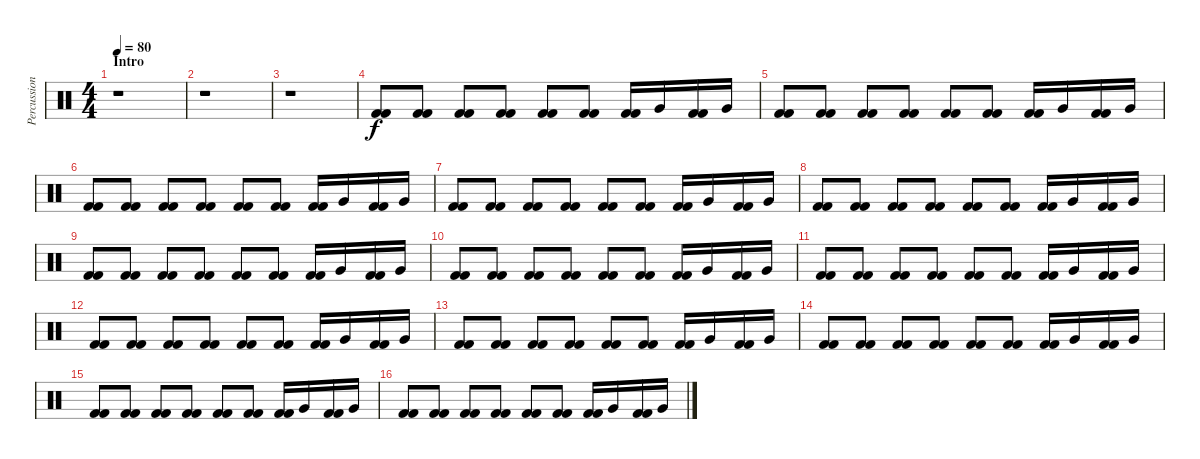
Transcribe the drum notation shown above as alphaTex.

\track ("Percussions" "Percussion") {instrument percussion}
\staff {score}
\articulation defaults
\ts (4 4)
\section ("" "Intro")
\tempo 80
\clef neutral
\ks c
r.1{dy f} |
r.1 |
r.1 |
("Kick (hit) 2" "Kick (hit) 2").8 ("Kick (hit) 2" "Kick (hit) 2").8 ("Kick (hit) 2" "Kick (hit) 2").8 ("Kick (hit) 2" "Kick (hit) 2").8 ("Kick (hit) 2" "Kick (hit) 2").8 ("Kick (hit) 2" "Kick (hit) 2").8 ("Kick (hit) 2" "Kick (hit) 2").16 "Very Low Tom (hit)".16 ("Kick (hit) 2" "Kick (hit) 2").16 "Very Low Tom (hit)".16 |
("Kick (hit) 2" "Kick (hit) 2").8 ("Kick (hit) 2" "Kick (hit) 2").8 ("Kick (hit) 2" "Kick (hit) 2").8 ("Kick (hit) 2" "Kick (hit) 2").8 ("Kick (hit) 2" "Kick (hit) 2").8 ("Kick (hit) 2" "Kick (hit) 2").8 ("Kick (hit) 2" "Kick (hit) 2").16 "Very Low Tom (hit)".16 ("Kick (hit) 2" "Kick (hit) 2").16 "Very Low Tom (hit)".16 |
("Kick (hit) 2" "Kick (hit) 2").8 ("Kick (hit) 2" "Kick (hit) 2").8 ("Kick (hit) 2" "Kick (hit) 2").8 ("Kick (hit) 2" "Kick (hit) 2").8 ("Kick (hit) 2" "Kick (hit) 2").8 ("Kick (hit) 2" "Kick (hit) 2").8 ("Kick (hit) 2" "Kick (hit) 2").16 "Very Low Tom (hit)".16 ("Kick (hit) 2" "Kick (hit) 2").16 "Very Low Tom (hit)".16 |
("Kick (hit) 2" "Kick (hit) 2").8 ("Kick (hit) 2" "Kick (hit) 2").8 ("Kick (hit) 2" "Kick (hit) 2").8 ("Kick (hit) 2" "Kick (hit) 2").8 ("Kick (hit) 2" "Kick (hit) 2").8 ("Kick (hit) 2" "Kick (hit) 2").8 ("Kick (hit) 2" "Kick (hit) 2").16 "Very Low Tom (hit)".16 ("Kick (hit) 2" "Kick (hit) 2").16 "Very Low Tom (hit)".16 |
("Kick (hit) 2" "Kick (hit) 2").8 ("Kick (hit) 2" "Kick (hit) 2").8 ("Kick (hit) 2" "Kick (hit) 2").8 ("Kick (hit) 2" "Kick (hit) 2").8 ("Kick (hit) 2" "Kick (hit) 2").8 ("Kick (hit) 2" "Kick (hit) 2").8 ("Kick (hit) 2" "Kick (hit) 2").16 "Very Low Tom (hit)".16 ("Kick (hit) 2" "Kick (hit) 2").16 "Very Low Tom (hit)".16 |
("Kick (hit) 2" "Kick (hit) 2").8 ("Kick (hit) 2" "Kick (hit) 2").8 ("Kick (hit) 2" "Kick (hit) 2").8 ("Kick (hit) 2" "Kick (hit) 2").8 ("Kick (hit) 2" "Kick (hit) 2").8 ("Kick (hit) 2" "Kick (hit) 2").8 ("Kick (hit) 2" "Kick (hit) 2").16 "Very Low Tom (hit)".16 ("Kick (hit) 2" "Kick (hit) 2").16 "Very Low Tom (hit)".16 |
("Kick (hit) 2" "Kick (hit) 2").8 ("Kick (hit) 2" "Kick (hit) 2").8 ("Kick (hit) 2" "Kick (hit) 2").8 ("Kick (hit) 2" "Kick (hit) 2").8 ("Kick (hit) 2" "Kick (hit) 2").8 ("Kick (hit) 2" "Kick (hit) 2").8 ("Kick (hit) 2" "Kick (hit) 2").16 "Very Low Tom (hit)".16 ("Kick (hit) 2" "Kick (hit) 2").16 "Very Low Tom (hit)".16 |
("Kick (hit) 2" "Kick (hit) 2").8 ("Kick (hit) 2" "Kick (hit) 2").8 ("Kick (hit) 2" "Kick (hit) 2").8 ("Kick (hit) 2" "Kick (hit) 2").8 ("Kick (hit) 2" "Kick (hit) 2").8 ("Kick (hit) 2" "Kick (hit) 2").8 ("Kick (hit) 2" "Kick (hit) 2").16 "Very Low Tom (hit)".16 ("Kick (hit) 2" "Kick (hit) 2").16 "Very Low Tom (hit)".16 |
("Kick (hit) 2" "Kick (hit) 2").8 ("Kick (hit) 2" "Kick (hit) 2").8 ("Kick (hit) 2" "Kick (hit) 2").8 ("Kick (hit) 2" "Kick (hit) 2").8 ("Kick (hit) 2" "Kick (hit) 2").8 ("Kick (hit) 2" "Kick (hit) 2").8 ("Kick (hit) 2" "Kick (hit) 2").16 "Very Low Tom (hit)".16 ("Kick (hit) 2" "Kick (hit) 2").16 "Very Low Tom (hit)".16 |
("Kick (hit) 2" "Kick (hit) 2").8 ("Kick (hit) 2" "Kick (hit) 2").8 ("Kick (hit) 2" "Kick (hit) 2").8 ("Kick (hit) 2" "Kick (hit) 2").8 ("Kick (hit) 2" "Kick (hit) 2").8 ("Kick (hit) 2" "Kick (hit) 2").8 ("Kick (hit) 2" "Kick (hit) 2").16 "Very Low Tom (hit)".16 ("Kick (hit) 2" "Kick (hit) 2").16 "Very Low Tom (hit)".16 |
("Kick (hit) 2" "Kick (hit) 2").8 ("Kick (hit) 2" "Kick (hit) 2").8 ("Kick (hit) 2" "Kick (hit) 2").8 ("Kick (hit) 2" "Kick (hit) 2").8 ("Kick (hit) 2" "Kick (hit) 2").8 ("Kick (hit) 2" "Kick (hit) 2").8 ("Kick (hit) 2" "Kick (hit) 2").16 "Very Low Tom (hit)".16 ("Kick (hit) 2" "Kick (hit) 2").16 "Very Low Tom (hit)".16 |
("Kick (hit) 2" "Kick (hit) 2").8 ("Kick (hit) 2" "Kick (hit) 2").8 ("Kick (hit) 2" "Kick (hit) 2").8 ("Kick (hit) 2" "Kick (hit) 2").8 ("Kick (hit) 2" "Kick (hit) 2").8 ("Kick (hit) 2" "Kick (hit) 2").8 ("Kick (hit) 2" "Kick (hit) 2").16 "Very Low Tom (hit)".16 ("Kick (hit) 2" "Kick (hit) 2").16 "Very Low Tom (hit)".16 |
("Kick (hit) 2" "Kick (hit) 2").8 ("Kick (hit) 2" "Kick (hit) 2").8 ("Kick (hit) 2" "Kick (hit) 2").8 ("Kick (hit) 2" "Kick (hit) 2").8 ("Kick (hit) 2" "Kick (hit) 2").8 ("Kick (hit) 2" "Kick (hit) 2").8 ("Kick (hit) 2" "Kick (hit) 2").16 "Very Low Tom (hit)".16 ("Kick (hit) 2" "Kick (hit) 2").16 "Very Low Tom (hit)".16
